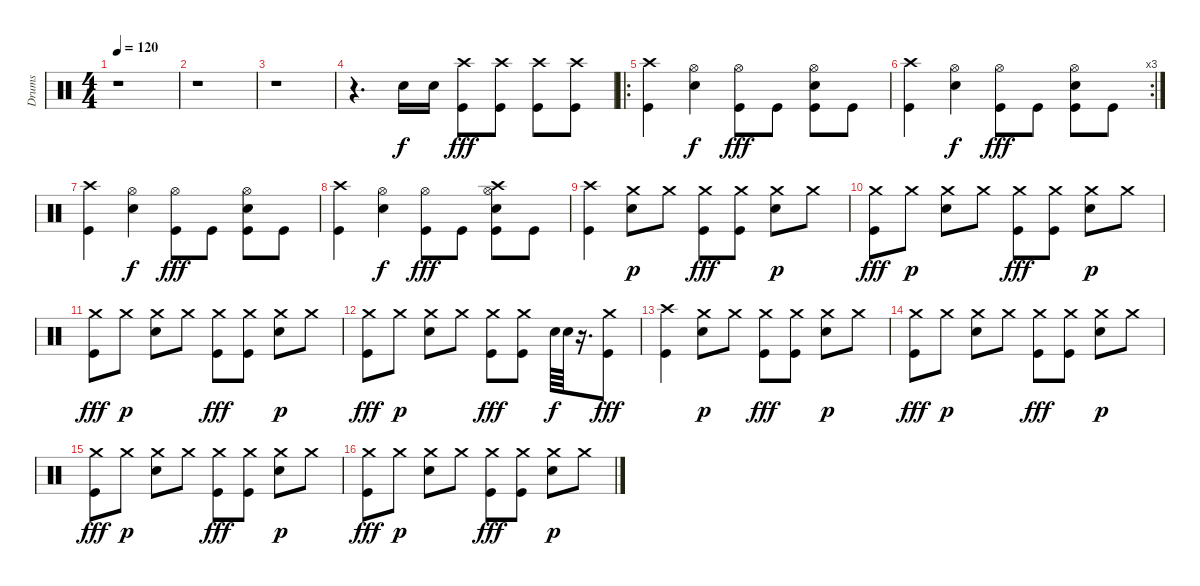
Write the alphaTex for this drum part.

\track ("Drums" "Drums") {instrument percussion}
\staff {score}
\articulation defaults
\ts (4 4)
\tempo 120
\clef neutral
\ks c
r.1{dy f} |
r.1 |
r.1 |
r.4{d} "Snare (hit) 2".16 "Snare (hit) 2".16 ("Crash high (hit)" "Kick (hit)").8{dy fff} ("Crash high (hit)" "Kick (hit)").8 ("Crash high (hit)" "Kick (hit)").8 ("Crash high (hit)" "Kick (hit)").8 |
\ro
("Crash high (hit)" "Kick (hit)").4 ("Hi-Hat (open)" "Snare (hit) 2").4{dy f} ("Hi-Hat (open)" "Kick (hit)").8{dy fff} "Kick (hit)".8 ("Hi-Hat (open)" "Snare (hit) 2" "Kick (hit)").8 "Kick (hit)".8 |
\rc 3
("Crash high (hit)" "Kick (hit)").4 ("Hi-Hat (open)" "Snare (hit) 2").4{dy f} ("Hi-Hat (open)" "Kick (hit)").8{dy fff} "Kick (hit)".8 ("Hi-Hat (open)" "Snare (hit) 2" "Kick (hit)").8 "Kick (hit)".8 |
("Crash high (hit)" "Kick (hit)").4 ("Hi-Hat (open)" "Snare (hit) 2").4{dy f} ("Hi-Hat (open)" "Kick (hit)").8{dy fff} "Kick (hit)".8 ("Hi-Hat (open)" "Snare (hit) 2" "Kick (hit)").8 "Kick (hit)".8 |
("Crash high (hit)" "Kick (hit)").4 ("Hi-Hat (open)" "Snare (hit) 2").4{dy f} ("Hi-Hat (open)" "Kick (hit)").8{dy fff} "Kick (hit)".8 ("Crash high (hit)" "Hi-Hat (open)" "Snare (hit) 2" "Kick (hit)").8 "Kick (hit)".8 |
("Crash high (hit)" "Kick (hit)").4 ("Crash medium (hit)" "Snare (hit) 2").8{dy p} "Crash medium (hit)".8 ("Crash medium (hit)" "Kick (hit)").8{dy fff} ("Crash medium (hit)" "Kick (hit)").8 ("Crash medium (hit)" "Snare (hit) 2").8{dy p} "Crash medium (hit)".8 |
("Crash medium (hit)" "Kick (hit)").8{dy fff} "Crash medium (hit)".8{dy p} ("Crash medium (hit)" "Snare (hit) 2").8 "Crash medium (hit)".8 ("Crash medium (hit)" "Kick (hit)").8{dy fff} ("Crash medium (hit)" "Kick (hit)").8 ("Crash medium (hit)" "Snare (hit) 2").8{dy p} "Crash medium (hit)".8 |
("Crash medium (hit)" "Kick (hit)").8{dy fff} "Crash medium (hit)".8{dy p} ("Crash medium (hit)" "Snare (hit) 2").8 "Crash medium (hit)".8 ("Crash medium (hit)" "Kick (hit)").8{dy fff} ("Crash medium (hit)" "Kick (hit)").8 ("Crash medium (hit)" "Snare (hit) 2").8{dy p} "Crash medium (hit)".8 |
("Crash medium (hit)" "Kick (hit)").8{dy fff} "Crash medium (hit)".8{dy p} ("Crash medium (hit)" "Snare (hit) 2").8 "Crash medium (hit)".8 ("Crash medium (hit)" "Kick (hit)").8{dy fff} ("Crash medium (hit)" "Kick (hit)").8 "Snare (hit) 2".64{dy f} "Snare (hit) 2".64 r.16{d} ("Crash medium (hit)" "Kick (hit)").8{dy fff} |
("Crash high (hit)" "Kick (hit)").4 ("Crash medium (hit)" "Snare (hit) 2").8{dy p} "Crash medium (hit)".8 ("Crash medium (hit)" "Kick (hit)").8{dy fff} ("Crash medium (hit)" "Kick (hit)").8 ("Crash medium (hit)" "Snare (hit) 2").8{dy p} "Crash medium (hit)".8 |
("Crash medium (hit)" "Kick (hit)").8{dy fff} "Crash medium (hit)".8{dy p} ("Crash medium (hit)" "Snare (hit) 2").8 "Crash medium (hit)".8 ("Crash medium (hit)" "Kick (hit)").8{dy fff} ("Crash medium (hit)" "Kick (hit)").8 ("Crash medium (hit)" "Snare (hit) 2").8{dy p} "Crash medium (hit)".8 |
("Crash medium (hit)" "Kick (hit)").8{dy fff} "Crash medium (hit)".8{dy p} ("Crash medium (hit)" "Snare (hit) 2").8 "Crash medium (hit)".8 ("Crash medium (hit)" "Kick (hit)").8{dy fff} ("Crash medium (hit)" "Kick (hit)").8 ("Crash medium (hit)" "Snare (hit) 2").8{dy p} "Crash medium (hit)".8 |
("Crash medium (hit)" "Kick (hit)").8{dy fff} "Crash medium (hit)".8{dy p} ("Crash medium (hit)" "Snare (hit) 2").8 "Crash medium (hit)".8 ("Crash medium (hit)" "Kick (hit)").8{dy fff} ("Crash medium (hit)" "Kick (hit)").8 ("Crash medium (hit)" "Snare (hit) 2").8{dy p} "Crash medium (hit)".8
